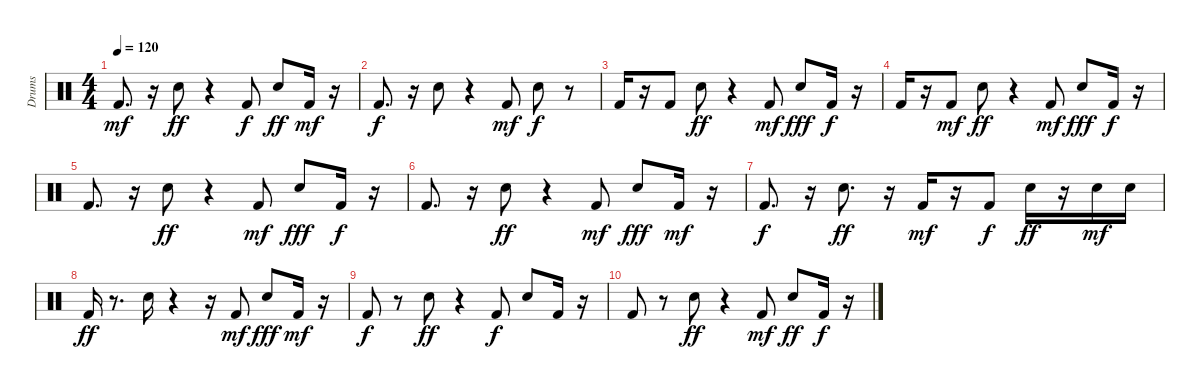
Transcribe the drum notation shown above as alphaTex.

\track ("Drums" "Drums") {instrument percussion}
\staff {score}
\articulation defaults
\ts (4 4)
\tempo 120
\clef neutral
\ks c "Kick (hit) 2".8{d dy mf}
r.16 "Electric Snare (hit)".8{dy ff} r.4 "Kick (hit) 2".8{dy f} "Electric Snare (hit)".8{dy ff} "Kick (hit) 2".16{dy mf} r.16 |
"Kick (hit) 2".8{d dy f} r.16 "Electric Snare (hit)".8 r.4 "Kick (hit) 2".8{dy mf} "Electric Snare (hit)".8{dy f} r.8 |
"Kick (hit) 2".16 r.16 "Kick (hit) 2".8{volume 15} "Electric Snare (hit)".8{dy ff volume 15} r.4 "Kick (hit) 2".8{dy mf volume 14} "Electric Snare (hit)".8{dy fff volume 14} "Kick (hit) 2".16{dy f volume 13} r.16 |
"Kick (hit) 2".16{volume 13} r.16 "Kick (hit) 2".8{dy mf volume 13} "Electric Snare (hit)".8{dy ff volume 13} r.4 "Kick (hit) 2".8{dy mf volume 12} "Electric Snare (hit)".8{dy fff volume 12} "Kick (hit) 2".16{dy f volume 12} r.16 |
"Kick (hit) 2".8{d volume 11} r.16 "Electric Snare (hit)".8{dy ff volume 11} r.4 "Kick (hit) 2".8{dy mf volume 10} "Electric Snare (hit)".8{dy fff volume 10} "Kick (hit) 2".16{dy f volume 10} r.16 |
"Kick (hit) 2".8{d volume 9} r.16 "Electric Snare (hit)".8{dy ff volume 9} r.4 "Kick (hit) 2".8{dy mf volume 8} "Electric Snare (hit)".8{dy fff volume 8} "Kick (hit) 2".16{dy mf volume 8} r.16 |
"Kick (hit) 2".8{d dy f volume 8} r.16 "Electric Snare (hit)".8{d dy ff volume 7} r.16 "Kick (hit) 2".16{dy mf volume 7} r.16 "Kick (hit) 2".8{dy f volume 6} "Electric Snare (hit)".16{dy ff volume 6} r.16 "Electric Snare (hit)".16{dy mf volume 6} "Electric Snare (hit)".16 |
"Kick (hit) 2".16{dy ff volume 6} r.8{d} "Electric Snare (hit)".16{volume 5} r.4 r.16 "Kick (hit) 2".8{dy mf volume 5} "Electric Snare (hit)".8{dy fff volume 4} "Kick (hit) 2".16{dy mf volume 4} r.16 |
"Kick (hit) 2".8{dy f volume 4} r.8 "Electric Snare (hit)".8{dy ff volume 3} r.4 "Kick (hit) 2".8{dy f volume 3} "Electric Snare (hit)".8{volume 3} "Kick (hit) 2".16{volume 2} r.16 |
"Kick (hit) 2".8{volume 2} r.8 "Electric Snare (hit)".8{dy ff volume 2} r.4 "Kick (hit) 2".8{dy mf volume 1} "Electric Snare (hit)".8{dy ff volume 1} "Kick (hit) 2".16{dy f volume 0} r.16
